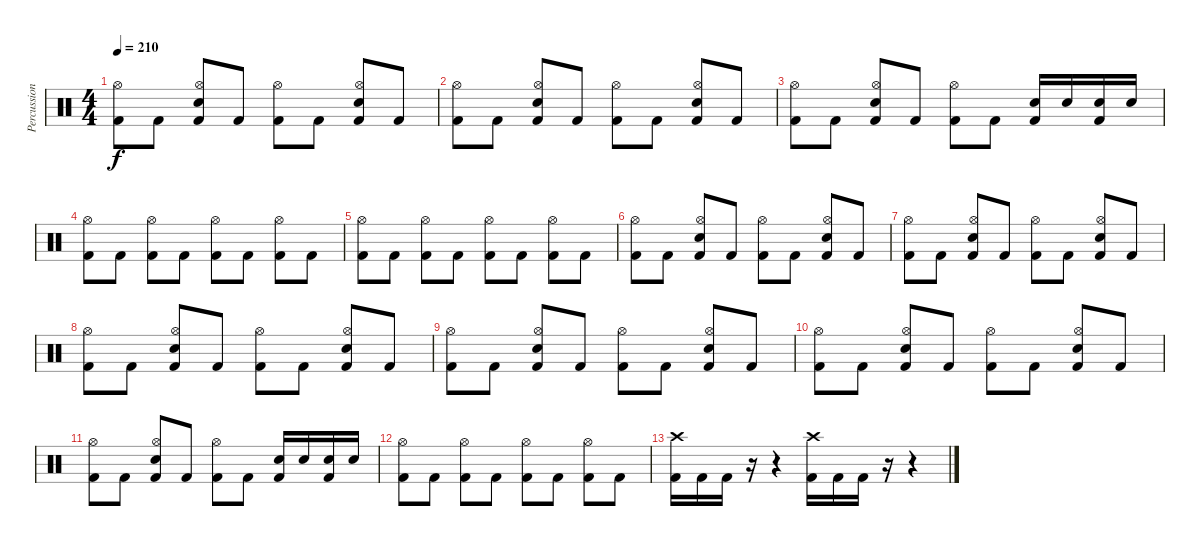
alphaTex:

\track ("Percussion" "Percussion") {instrument percussion}
\staff {score}
\articulation defaults
\ts (4 4)
\tempo 210
\clef neutral
\ks c
("Kick (hit) 2" "Hi-Hat (open)").8{dy f} "Kick (hit) 2".8 ("Electric Snare (hit)" "Kick (hit) 2" "Hi-Hat (open)").8 "Kick (hit) 2".8 ("Kick (hit) 2" "Hi-Hat (open)").8 "Kick (hit) 2".8 ("Electric Snare (hit)" "Kick (hit) 2" "Hi-Hat (open)").8 "Kick (hit) 2".8 |
("Kick (hit) 2" "Hi-Hat (open)").8 "Kick (hit) 2".8 ("Electric Snare (hit)" "Kick (hit) 2" "Hi-Hat (open)").8 "Kick (hit) 2".8 ("Kick (hit) 2" "Hi-Hat (open)").8 "Kick (hit) 2".8 ("Electric Snare (hit)" "Kick (hit) 2" "Hi-Hat (open)").8 "Kick (hit) 2".8 |
("Kick (hit) 2" "Hi-Hat (open)").8 "Kick (hit) 2".8 ("Electric Snare (hit)" "Kick (hit) 2" "Hi-Hat (open)").8 "Kick (hit) 2".8 ("Kick (hit) 2" "Hi-Hat (open)").8 "Kick (hit) 2".8 ("Electric Snare (hit)" "Kick (hit) 2").16 "Electric Snare (hit)".16 ("Electric Snare (hit)" "Kick (hit) 2").16 "Electric Snare (hit)".16 |
("Kick (hit) 2" "Hi-Hat (open)").8 "Kick (hit) 2".8 ("Kick (hit) 2" "Hi-Hat (open)").8 "Kick (hit) 2".8 ("Kick (hit) 2" "Hi-Hat (open)").8 "Kick (hit) 2".8 ("Kick (hit) 2" "Hi-Hat (open)").8 "Kick (hit) 2".8 |
("Kick (hit) 2" "Hi-Hat (open)").8 "Kick (hit) 2".8 ("Kick (hit) 2" "Hi-Hat (open)").8 "Kick (hit) 2".8 ("Kick (hit) 2" "Hi-Hat (open)").8 "Kick (hit) 2".8 ("Kick (hit) 2" "Hi-Hat (open)").8 "Kick (hit) 2".8 |
("Kick (hit) 2" "Hi-Hat (open)").8 "Kick (hit) 2".8 ("Electric Snare (hit)" "Kick (hit) 2" "Hi-Hat (open)").8 "Kick (hit) 2".8 ("Kick (hit) 2" "Hi-Hat (open)").8 "Kick (hit) 2".8 ("Electric Snare (hit)" "Kick (hit) 2" "Hi-Hat (open)").8 "Kick (hit) 2".8 |
("Kick (hit) 2" "Hi-Hat (open)").8 "Kick (hit) 2".8 ("Electric Snare (hit)" "Kick (hit) 2" "Hi-Hat (open)").8 "Kick (hit) 2".8 ("Kick (hit) 2" "Hi-Hat (open)").8 "Kick (hit) 2".8 ("Electric Snare (hit)" "Kick (hit) 2" "Hi-Hat (open)").8 "Kick (hit) 2".8 |
("Kick (hit) 2" "Hi-Hat (open)").8 "Kick (hit) 2".8 ("Electric Snare (hit)" "Kick (hit) 2" "Hi-Hat (open)").8 "Kick (hit) 2".8 ("Kick (hit) 2" "Hi-Hat (open)").8 "Kick (hit) 2".8 ("Electric Snare (hit)" "Kick (hit) 2" "Hi-Hat (open)").8 "Kick (hit) 2".8 |
("Kick (hit) 2" "Hi-Hat (open)").8 "Kick (hit) 2".8 ("Electric Snare (hit)" "Kick (hit) 2" "Hi-Hat (open)").8 "Kick (hit) 2".8 ("Kick (hit) 2" "Hi-Hat (open)").8 "Kick (hit) 2".8 ("Electric Snare (hit)" "Kick (hit) 2" "Hi-Hat (open)").8 "Kick (hit) 2".8 |
("Kick (hit) 2" "Hi-Hat (open)").8 "Kick (hit) 2".8 ("Electric Snare (hit)" "Kick (hit) 2" "Hi-Hat (open)").8 "Kick (hit) 2".8 ("Kick (hit) 2" "Hi-Hat (open)").8 "Kick (hit) 2".8 ("Electric Snare (hit)" "Kick (hit) 2" "Hi-Hat (open)").8 "Kick (hit) 2".8 |
("Kick (hit) 2" "Hi-Hat (open)").8 "Kick (hit) 2".8 ("Electric Snare (hit)" "Kick (hit) 2" "Hi-Hat (open)").8 "Kick (hit) 2".8 ("Kick (hit) 2" "Hi-Hat (open)").8 "Kick (hit) 2".8 ("Electric Snare (hit)" "Kick (hit) 2").16 "Electric Snare (hit)".16 ("Electric Snare (hit)" "Kick (hit) 2").16 "Electric Snare (hit)".16 |
("Kick (hit) 2" "Hi-Hat (open)").8 "Kick (hit) 2".8 ("Kick (hit) 2" "Hi-Hat (open)").8 "Kick (hit) 2".8 ("Kick (hit) 2" "Hi-Hat (open)").8 "Kick (hit) 2".8 ("Kick (hit) 2" "Hi-Hat (open)").8 "Kick (hit) 2".8 |
("Crash high (hit)" "Kick (hit) 2").16 "Kick (hit) 2".16 "Kick (hit) 2".16 r.16 r.4 ("Crash high (hit)" "Kick (hit) 2").16 "Kick (hit) 2".16 "Kick (hit) 2".16 r.16 r.4
